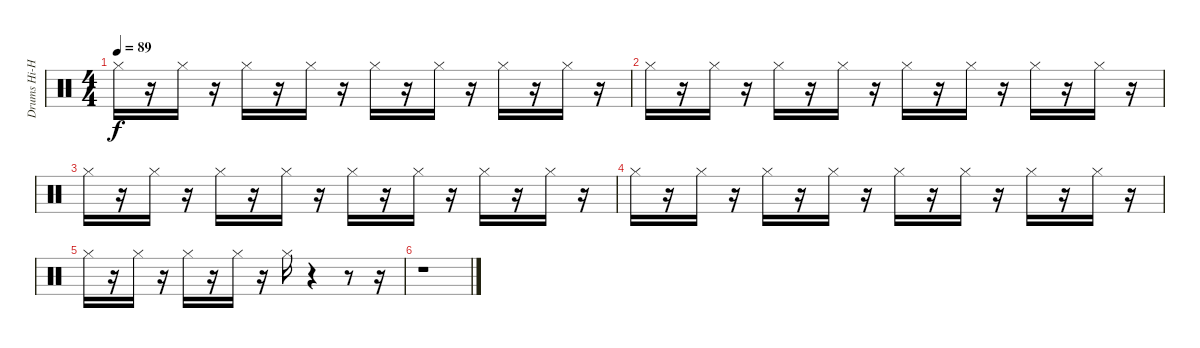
\track ("Drums Hi-Hat closed" "Drums Hi-H") {instrument percussion}
\staff {score}
\articulation defaults
\ts (4 4)
\tempo 89
\clef neutral
\ks c "Hi-Hat (closed)".16{dy f}
r.16 "Hi-Hat (closed)".16 r.16 "Hi-Hat (closed)".16 r.16 "Hi-Hat (closed)".16 r.16 "Hi-Hat (closed)".16 r.16 "Hi-Hat (closed)".16 r.16 "Hi-Hat (closed)".16 r.16 "Hi-Hat (closed)".16 r.16 |
"Hi-Hat (closed)".16 r.16 "Hi-Hat (closed)".16 r.16 "Hi-Hat (closed)".16 r.16 "Hi-Hat (closed)".16 r.16 "Hi-Hat (closed)".16 r.16 "Hi-Hat (closed)".16 r.16 "Hi-Hat (closed)".16 r.16 "Hi-Hat (closed)".16 r.16 |
"Hi-Hat (closed)".16 r.16 "Hi-Hat (closed)".16 r.16 "Hi-Hat (closed)".16 r.16 "Hi-Hat (closed)".16 r.16 "Hi-Hat (closed)".16 r.16 "Hi-Hat (closed)".16 r.16 "Hi-Hat (closed)".16 r.16 "Hi-Hat (closed)".16 r.16 |
"Hi-Hat (closed)".16 r.16 "Hi-Hat (closed)".16 r.16 "Hi-Hat (closed)".16 r.16 "Hi-Hat (closed)".16 r.16 "Hi-Hat (closed)".16 r.16 "Hi-Hat (closed)".16 r.16 "Hi-Hat (closed)".16 r.16 "Hi-Hat (closed)".16 r.16 |
"Hi-Hat (closed)".16 r.16 "Hi-Hat (closed)".16 r.16 "Hi-Hat (closed)".16 r.16 "Hi-Hat (closed)".16 r.16 "Hi-Hat (closed)".16 r.4 r.8 r.16 |
r.1
